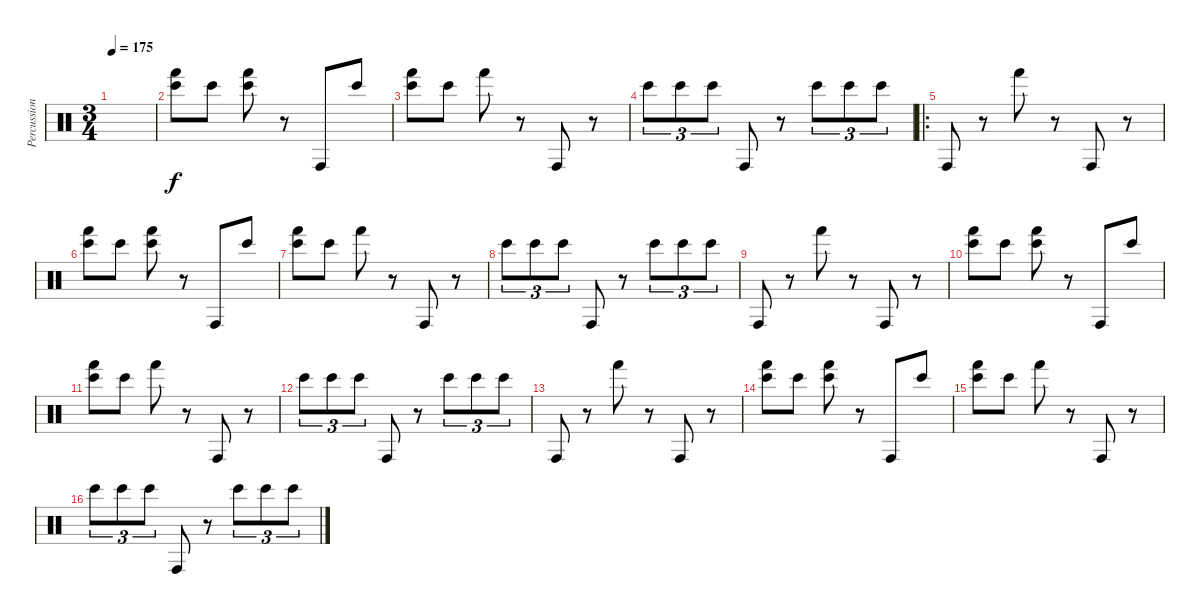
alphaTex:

\track ("Percussion" "Percussion") {instrument percussion}
\staff {score}
\articulation defaults
\ts (3 4)
\tempo 175
\clef neutral
\ks c
|
("Hand (hit)" "Bongo High (hit)").8 "Bongo High (hit)".8 ("Hand (hit)" "Bongo High (hit)").8 r.8 "Conga high (hit)".8 "Bongo High (hit)".8 |
("Hand (hit)" "Bongo High (hit)").8 "Bongo High (hit)".8 "Hand (hit)".8 r.8 "Conga high (hit)".8 r.8 |
"Bongo High (hit)".8{tu (3 2)} "Bongo High (hit)".8{tu (3 2)} "Bongo High (hit)".8{tu (3 2)} "Conga high (hit)".8 r.8 "Bongo High (hit)".8{tu (3 2)} "Bongo High (hit)".8{tu (3 2)} "Bongo High (hit)".8{tu (3 2)} |
\ro "Conga high (hit)".8
r.8 "Hand (hit)".8 r.8 "Conga high (hit)".8 r.8 |
("Hand (hit)" "Bongo High (hit)").8 "Bongo High (hit)".8 ("Hand (hit)" "Bongo High (hit)").8 r.8 "Conga high (hit)".8 "Bongo High (hit)".8 |
("Hand (hit)" "Bongo High (hit)").8 "Bongo High (hit)".8 "Hand (hit)".8 r.8 "Conga high (hit)".8 r.8 |
"Bongo High (hit)".8{tu (3 2)} "Bongo High (hit)".8{tu (3 2)} "Bongo High (hit)".8{tu (3 2)} "Conga high (hit)".8 r.8 "Bongo High (hit)".8{tu (3 2)} "Bongo High (hit)".8{tu (3 2)} "Bongo High (hit)".8{tu (3 2)} |
"Conga high (hit)".8 r.8 "Hand (hit)".8 r.8 "Conga high (hit)".8 r.8 |
("Hand (hit)" "Bongo High (hit)").8 "Bongo High (hit)".8 ("Hand (hit)" "Bongo High (hit)").8 r.8 "Conga high (hit)".8 "Bongo High (hit)".8 |
("Hand (hit)" "Bongo High (hit)").8 "Bongo High (hit)".8 "Hand (hit)".8 r.8 "Conga high (hit)".8 r.8 |
"Bongo High (hit)".8{tu (3 2)} "Bongo High (hit)".8{tu (3 2)} "Bongo High (hit)".8{tu (3 2)} "Conga high (hit)".8 r.8 "Bongo High (hit)".8{tu (3 2)} "Bongo High (hit)".8{tu (3 2)} "Bongo High (hit)".8{tu (3 2)} |
"Conga high (hit)".8 r.8 "Hand (hit)".8 r.8 "Conga high (hit)".8 r.8 |
("Hand (hit)" "Bongo High (hit)").8 "Bongo High (hit)".8 ("Hand (hit)" "Bongo High (hit)").8 r.8 "Conga high (hit)".8 "Bongo High (hit)".8 |
("Hand (hit)" "Bongo High (hit)").8 "Bongo High (hit)".8 "Hand (hit)".8 r.8 "Conga high (hit)".8 r.8 |
"Bongo High (hit)".8{tu (3 2)} "Bongo High (hit)".8{tu (3 2)} "Bongo High (hit)".8{tu (3 2)} "Conga high (hit)".8 r.8 "Bongo High (hit)".8{tu (3 2)} "Bongo High (hit)".8{tu (3 2)} "Bongo High (hit)".8{tu (3 2)}
